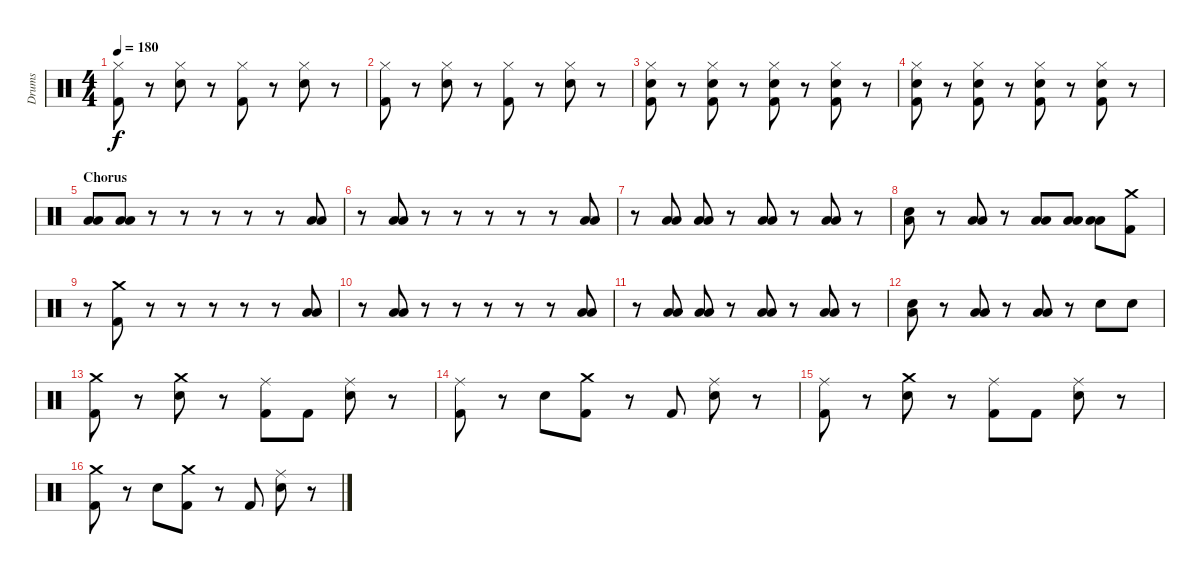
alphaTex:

\track ("Drums" "Drums") {instrument percussion}
\staff {score}
\articulation defaults
\ts (4 4)
\tempo 180
\clef neutral
\ks c
("Hi-Hat (closed)" "Kick (hit) 2").8{dy f} r.8 ("Hi-Hat (closed)" "Electric Snare (hit)").8 r.8 ("Hi-Hat (closed)" "Kick (hit) 2").8 r.8 ("Hi-Hat (closed)" "Electric Snare (hit)").8 r.8 |
("Hi-Hat (closed)" "Kick (hit) 2").8 r.8 ("Hi-Hat (closed)" "Electric Snare (hit)").8 r.8 ("Hi-Hat (closed)" "Kick (hit) 2").8 r.8 ("Hi-Hat (closed)" "Electric Snare (hit)").8 r.8 |
("Hi-Hat (closed)" "Kick (hit) 2" "Electric Snare (hit)").8 r.8 ("Hi-Hat (closed)" "Kick (hit) 2" "Electric Snare (hit)").8 r.8 ("Hi-Hat (closed)" "Kick (hit) 2" "Electric Snare (hit)").8 r.8 ("Hi-Hat (closed)" "Kick (hit) 2" "Electric Snare (hit)").8 r.8 |
("Hi-Hat (closed)" "Kick (hit) 2" "Electric Snare (hit)").8 r.8 ("Hi-Hat (closed)" "Kick (hit) 2" "Electric Snare (hit)").8 r.8 ("Hi-Hat (closed)" "Kick (hit) 2" "Electric Snare (hit)").8 r.8 ("Hi-Hat (closed)" "Kick (hit) 2" "Electric Snare (hit)").8 r.8 |
\section ("" "Chorus")
("Low Floor Tom (hit)" "Low Tom (hit)").8 ("Low Floor Tom (hit)" "Low Tom (hit)").8 r.8 r.8 r.8 r.8 r.8 ("Low Floor Tom (hit)" "Low Tom (hit)").8 |
r.8 ("Low Floor Tom (hit)" "Low Tom (hit)").8 r.8 r.8 r.8 r.8 r.8 ("Low Floor Tom (hit)" "Low Tom (hit)").8 |
r.8 ("Low Floor Tom (hit)" "Low Tom (hit)").8 ("Low Floor Tom (hit)" "Low Tom (hit)").8 r.8 ("Low Floor Tom (hit)" "Low Tom (hit)").8 r.8 ("Low Floor Tom (hit)" "Low Tom (hit)").8 r.8 |
("Low Floor Tom (hit)" "Electric Snare (hit)").8 r.8 ("Low Floor Tom (hit)" "Low Tom (hit)").8 r.8 ("Low Floor Tom (hit)" "Low Tom (hit)").8 ("Low Floor Tom (hit)" "Low Tom (hit)").8 ("Low Floor Tom (hit)" "Low Tom (hit)").8 ("Kick (hit) 2" "Crash medium (hit)").8 |
r.8 ("Kick (hit) 2" "Crash medium (hit)").8 r.8 r.8 r.8 r.8 r.8 ("Low Floor Tom (hit)" "Low Tom (hit)").8 |
r.8 ("Low Floor Tom (hit)" "Low Tom (hit)").8 r.8 r.8 r.8 r.8 r.8 ("Low Floor Tom (hit)" "Low Tom (hit)").8 |
r.8 ("Low Floor Tom (hit)" "Low Tom (hit)").8 ("Low Floor Tom (hit)" "Low Tom (hit)").8 r.8 ("Low Floor Tom (hit)" "Low Tom (hit)").8 r.8 ("Low Floor Tom (hit)" "Low Tom (hit)").8 r.8 |
("Low Floor Tom (hit)" "Electric Snare (hit)").8 r.8 ("Low Floor Tom (hit)" "Low Tom (hit)").8 r.8 ("Low Floor Tom (hit)" "Low Tom (hit)").8 r.8 "Electric Snare (hit)".8 "Electric Snare (hit)".8 |
("Kick (hit) 2" "Crash medium (hit)").8 r.8 ("Electric Snare (hit)" "Crash medium (hit)").8 r.8 ("Ride (middle)" "Kick (hit) 2").8 "Kick (hit) 2".8 ("Ride (middle)" "Electric Snare (hit)").8 r.8 |
("Ride (middle)" "Kick (hit) 2").8 r.8 "Electric Snare (hit)".8 ("Kick (hit) 2" "Crash medium (hit)").8 r.8 "Kick (hit) 2".8 ("Ride (middle)" "Electric Snare (hit)").8 r.8 |
("Ride (middle)" "Kick (hit) 2").8 r.8 ("Electric Snare (hit)" "Crash medium (hit)").8 r.8 ("Ride (middle)" "Kick (hit) 2").8 "Kick (hit) 2".8 ("Ride (middle)" "Electric Snare (hit)").8 r.8 |
("Kick (hit) 2" "Crash medium (hit)").8 r.8 "Electric Snare (hit)".8 ("Kick (hit) 2" "Crash medium (hit)").8 r.8 "Kick (hit) 2".8 ("Ride (middle)" "Electric Snare (hit)").8 r.8
